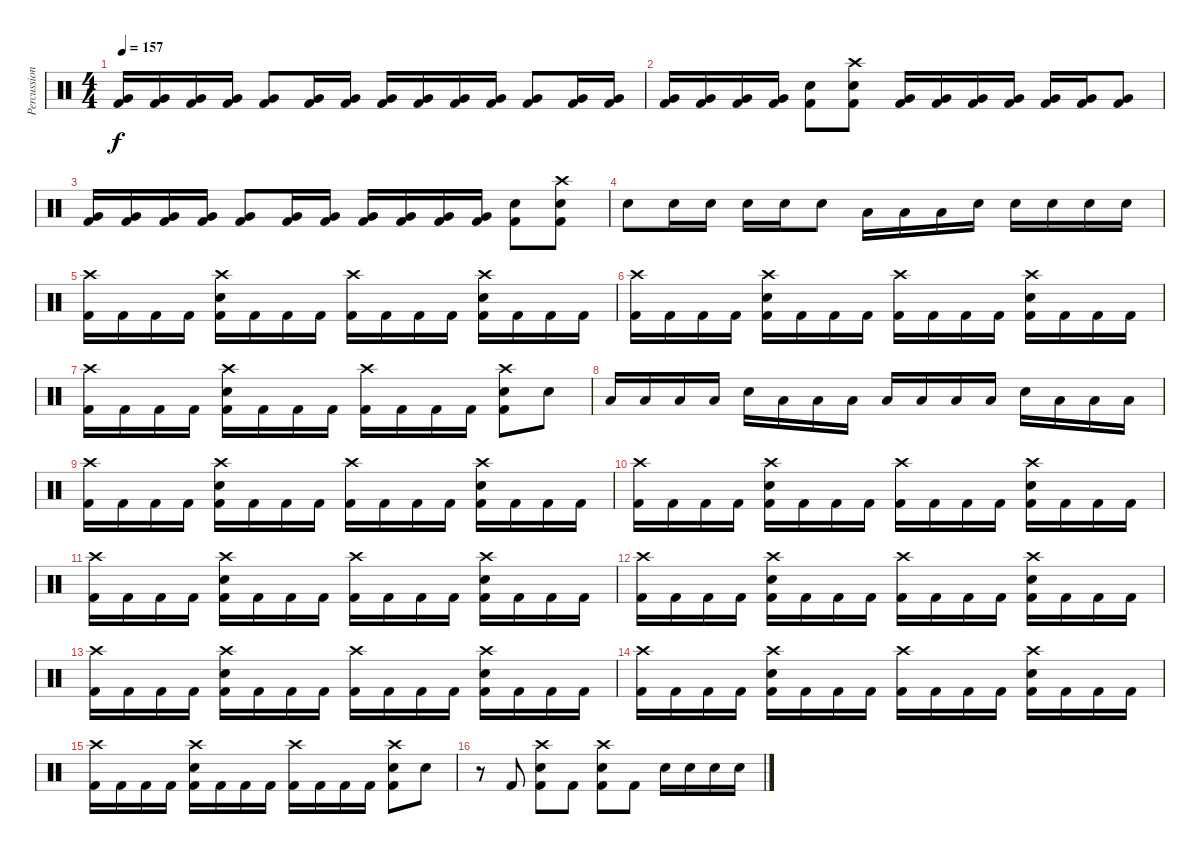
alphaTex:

\track ("Percussion" "Percussion") {instrument percussion}
\staff {score}
\articulation defaults
\ts (4 4)
\tempo 157
\clef neutral
\ks c
("Very Low Tom (hit)" "Kick (hit) 2").16{dy f} ("Very Low Tom (hit)" "Kick (hit) 2").16 ("Very Low Tom (hit)" "Kick (hit) 2").16 ("Very Low Tom (hit)" "Kick (hit) 2").16 ("Very Low Tom (hit)" "Kick (hit) 2").8 ("Very Low Tom (hit)" "Kick (hit) 2").16 ("Very Low Tom (hit)" "Kick (hit) 2").16 ("Very Low Tom (hit)" "Kick (hit) 2").16 ("Very Low Tom (hit)" "Kick (hit) 2").16 ("Very Low Tom (hit)" "Kick (hit) 2").16 ("Very Low Tom (hit)" "Kick (hit) 2").16 ("Very Low Tom (hit)" "Kick (hit) 2").8 ("Very Low Tom (hit)" "Kick (hit) 2").16 ("Very Low Tom (hit)" "Kick (hit) 2").16 |
("Very Low Tom (hit)" "Kick (hit) 2").16 ("Very Low Tom (hit)" "Kick (hit) 2").16 ("Very Low Tom (hit)" "Kick (hit) 2").16 ("Very Low Tom (hit)" "Kick (hit) 2").16 ("Electric Snare (hit)" "Kick (hit) 2").8 ("Crash high (hit)" "Electric Snare (hit)" "Kick (hit) 2").8 ("Very Low Tom (hit)" "Kick (hit) 2").16 ("Very Low Tom (hit)" "Kick (hit) 2").16 ("Very Low Tom (hit)" "Kick (hit) 2").16 ("Very Low Tom (hit)" "Kick (hit) 2").16 ("Very Low Tom (hit)" "Kick (hit) 2").16 ("Very Low Tom (hit)" "Kick (hit) 2").16 ("Very Low Tom (hit)" "Kick (hit) 2").8 |
("Very Low Tom (hit)" "Kick (hit) 2").16 ("Very Low Tom (hit)" "Kick (hit) 2").16 ("Very Low Tom (hit)" "Kick (hit) 2").16 ("Very Low Tom (hit)" "Kick (hit) 2").16 ("Very Low Tom (hit)" "Kick (hit) 2").8 ("Very Low Tom (hit)" "Kick (hit) 2").16 ("Very Low Tom (hit)" "Kick (hit) 2").16 ("Very Low Tom (hit)" "Kick (hit) 2").16 ("Very Low Tom (hit)" "Kick (hit) 2").16 ("Very Low Tom (hit)" "Kick (hit) 2").16 ("Very Low Tom (hit)" "Kick (hit) 2").16 ("Electric Snare (hit)" "Kick (hit) 2").8 ("Crash high (hit)" "Electric Snare (hit)" "Kick (hit) 2").8 |
"Electric Snare (hit)".8 "Electric Snare (hit)".16 "Electric Snare (hit)".16 "Electric Snare (hit)".16 "Electric Snare (hit)".16 "Electric Snare (hit)".8 "Low Tom (hit)".16 "Low Tom (hit)".16 "Low Tom (hit)".16 "Electric Snare (hit)".16 "Electric Snare (hit)".16 "Electric Snare (hit)".16 "Electric Snare (hit)".16 "Electric Snare (hit)".16 |
("Crash high (hit)" "Kick (hit) 2").16 "Kick (hit) 2".16 "Kick (hit) 2".16 "Kick (hit) 2".16 ("Crash high (hit)" "Electric Snare (hit)" "Kick (hit) 2").16 "Kick (hit) 2".16 "Kick (hit) 2".16 "Kick (hit) 2".16 ("Crash high (hit)" "Kick (hit) 2").16 "Kick (hit) 2".16 "Kick (hit) 2".16 "Kick (hit) 2".16 ("Crash high (hit)" "Electric Snare (hit)" "Kick (hit) 2").16 "Kick (hit) 2".16 "Kick (hit) 2".16 "Kick (hit) 2".16 |
("Crash high (hit)" "Kick (hit) 2").16 "Kick (hit) 2".16 "Kick (hit) 2".16 "Kick (hit) 2".16 ("Crash high (hit)" "Electric Snare (hit)" "Kick (hit) 2").16 "Kick (hit) 2".16 "Kick (hit) 2".16 "Kick (hit) 2".16 ("Crash high (hit)" "Kick (hit) 2").16 "Kick (hit) 2".16 "Kick (hit) 2".16 "Kick (hit) 2".16 ("Crash high (hit)" "Electric Snare (hit)" "Kick (hit) 2").16 "Kick (hit) 2".16 "Kick (hit) 2".16 "Kick (hit) 2".16 |
("Crash high (hit)" "Kick (hit) 2").16 "Kick (hit) 2".16 "Kick (hit) 2".16 "Kick (hit) 2".16 ("Crash high (hit)" "Electric Snare (hit)" "Kick (hit) 2").16 "Kick (hit) 2".16 "Kick (hit) 2".16 "Kick (hit) 2".16 ("Crash high (hit)" "Kick (hit) 2").16 "Kick (hit) 2".16 "Kick (hit) 2".16 "Kick (hit) 2".16 ("Crash high (hit)" "Electric Snare (hit)" "Kick (hit) 2").8 "Electric Snare (hit)".8 |
"Low Tom (hit)".16 "Low Tom (hit)".16 "Low Tom (hit)".16 "Low Tom (hit)".16 "Electric Snare (hit)".16 "Low Tom (hit)".16 "Low Tom (hit)".16 "Low Tom (hit)".16 "Low Tom (hit)".16 "Low Floor Tom (hit)".16 "Low Floor Tom (hit)".16 "Low Floor Tom (hit)".16 "Electric Snare (hit)".16 "Low Floor Tom (hit)".16 "Low Floor Tom (hit)".16 "Low Floor Tom (hit)".16 |
("Crash high (hit)" "Kick (hit) 2").16 "Kick (hit) 2".16 "Kick (hit) 2".16 "Kick (hit) 2".16 ("Crash high (hit)" "Electric Snare (hit)" "Kick (hit) 2").16 "Kick (hit) 2".16 "Kick (hit) 2".16 "Kick (hit) 2".16 ("Crash high (hit)" "Kick (hit) 2").16 "Kick (hit) 2".16 "Kick (hit) 2".16 "Kick (hit) 2".16 ("Crash high (hit)" "Electric Snare (hit)" "Kick (hit) 2").16 "Kick (hit) 2".16 "Kick (hit) 2".16 "Kick (hit) 2".16 |
("Crash high (hit)" "Kick (hit) 2").16 "Kick (hit) 2".16 "Kick (hit) 2".16 "Kick (hit) 2".16 ("Crash high (hit)" "Electric Snare (hit)" "Kick (hit) 2").16 "Kick (hit) 2".16 "Kick (hit) 2".16 "Kick (hit) 2".16 ("Crash high (hit)" "Kick (hit) 2").16 "Kick (hit) 2".16 "Kick (hit) 2".16 "Kick (hit) 2".16 ("Crash high (hit)" "Electric Snare (hit)" "Kick (hit) 2").16 "Kick (hit) 2".16 "Kick (hit) 2".16 "Kick (hit) 2".16 |
("Crash high (hit)" "Kick (hit) 2").16 "Kick (hit) 2".16 "Kick (hit) 2".16 "Kick (hit) 2".16 ("Crash high (hit)" "Electric Snare (hit)" "Kick (hit) 2").16 "Kick (hit) 2".16 "Kick (hit) 2".16 "Kick (hit) 2".16 ("Crash high (hit)" "Kick (hit) 2").16 "Kick (hit) 2".16 "Kick (hit) 2".16 "Kick (hit) 2".16 ("Crash high (hit)" "Electric Snare (hit)" "Kick (hit) 2").16 "Kick (hit) 2".16 "Kick (hit) 2".16 "Kick (hit) 2".16 |
("Crash high (hit)" "Kick (hit) 2").16 "Kick (hit) 2".16 "Kick (hit) 2".16 "Kick (hit) 2".16 ("Crash high (hit)" "Electric Snare (hit)" "Kick (hit) 2").16 "Kick (hit) 2".16 "Kick (hit) 2".16 "Kick (hit) 2".16 ("Crash high (hit)" "Kick (hit) 2").16 "Kick (hit) 2".16 "Kick (hit) 2".16 "Kick (hit) 2".16 ("Crash high (hit)" "Electric Snare (hit)" "Kick (hit) 2").16 "Kick (hit) 2".16 "Kick (hit) 2".16 "Kick (hit) 2".16 |
("Crash high (hit)" "Kick (hit) 2").16 "Kick (hit) 2".16 "Kick (hit) 2".16 "Kick (hit) 2".16 ("Crash high (hit)" "Electric Snare (hit)" "Kick (hit) 2").16 "Kick (hit) 2".16 "Kick (hit) 2".16 "Kick (hit) 2".16 ("Crash high (hit)" "Kick (hit) 2").16 "Kick (hit) 2".16 "Kick (hit) 2".16 "Kick (hit) 2".16 ("Crash high (hit)" "Electric Snare (hit)" "Kick (hit) 2").16 "Kick (hit) 2".16 "Kick (hit) 2".16 "Kick (hit) 2".16 |
("Crash high (hit)" "Kick (hit) 2").16 "Kick (hit) 2".16 "Kick (hit) 2".16 "Kick (hit) 2".16 ("Crash high (hit)" "Electric Snare (hit)" "Kick (hit) 2").16 "Kick (hit) 2".16 "Kick (hit) 2".16 "Kick (hit) 2".16 ("Crash high (hit)" "Kick (hit) 2").16 "Kick (hit) 2".16 "Kick (hit) 2".16 "Kick (hit) 2".16 ("Crash high (hit)" "Electric Snare (hit)" "Kick (hit) 2").16 "Kick (hit) 2".16 "Kick (hit) 2".16 "Kick (hit) 2".16 |
("Crash high (hit)" "Kick (hit) 2").16 "Kick (hit) 2".16 "Kick (hit) 2".16 "Kick (hit) 2".16 ("Crash high (hit)" "Electric Snare (hit)" "Kick (hit) 2").16 "Kick (hit) 2".16 "Kick (hit) 2".16 "Kick (hit) 2".16 ("Crash high (hit)" "Kick (hit) 2").16 "Kick (hit) 2".16 "Kick (hit) 2".16 "Kick (hit) 2".16 ("Crash high (hit)" "Electric Snare (hit)" "Kick (hit) 2").8 "Electric Snare (hit)".8 |
r.8 "Kick (hit) 2".8 ("Crash high (hit)" "Electric Snare (hit)" "Kick (hit) 2").8 "Kick (hit) 2".8 ("Crash high (hit)" "Electric Snare (hit)" "Kick (hit) 2").8 "Kick (hit) 2".8 "Electric Snare (hit)".16 "Electric Snare (hit)".16 "Electric Snare (hit)".16 "Electric Snare (hit)".16
